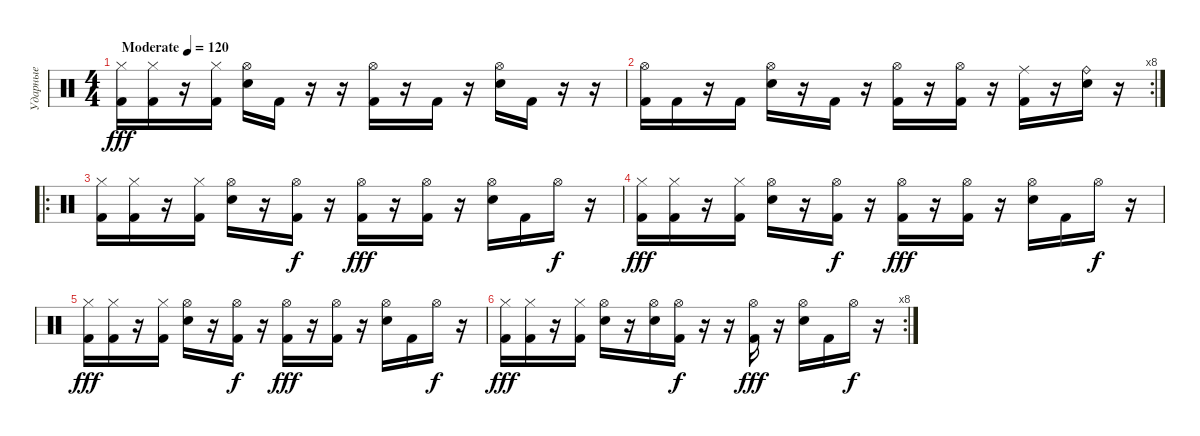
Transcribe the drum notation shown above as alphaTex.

\track ("Ударные" "Ударные") {instrument percussion}
\staff {score}
\articulation defaults
\ts (4 4)
\tempo (120 "Moderate")
\clef neutral
\ks c
("Hi-Hat (closed)" "Kick (hit) 2").16{dy fff} ("Hi-Hat (closed)" "Kick (hit) 2").16 r.16 ("Hi-Hat (closed)" "Kick (hit) 2").16 ("Hi-Hat (open)" "Electric Snare (hit)").16 "Kick (hit) 2".16 r.16 r.16 ("Hi-Hat (open)" "Kick (hit) 2").16 r.16 "Kick (hit) 2".16 r.16 ("Hi-Hat (open)" "Electric Snare (hit)").16 "Kick (hit) 2".16 r.16 r.16 |
\rc 8
("Hi-Hat (open)" "Kick (hit) 2").16 "Kick (hit) 2".16 r.16 "Kick (hit) 2".16 ("Hi-Hat (open)" "Electric Snare (hit)").16 r.16 "Kick (hit) 2".16 r.16 ("Hi-Hat (open)" "Kick (hit) 2").16 r.16 ("Hi-Hat (open)" "Kick (hit) 2").16 r.16 ("Ride (middle)" "Kick (hit) 2").16 r.16 ("Ride (bell)" "Electric Snare (hit)").16 r.16 |
\ro
("Hi-Hat (closed)" "Kick (hit) 2").16 ("Hi-Hat (closed)" "Kick (hit) 2").16 r.16 ("Hi-Hat (closed)" "Kick (hit) 2").16 ("Hi-Hat (open)" "Electric Snare (hit)").16 r.16 ("Hi-Hat (open)" "Kick (hit) 2").16{dy f} r.16 ("Hi-Hat (open)" "Kick (hit) 2").16{dy fff} r.16 ("Hi-Hat (open)" "Kick (hit) 2").16 r.16 ("Hi-Hat (open)" "Electric Snare (hit)").16 "Kick (hit) 2".16 "Hi-Hat (open)".16{dy f} r.16 |
("Hi-Hat (closed)" "Kick (hit) 2").16{dy fff} ("Hi-Hat (closed)" "Kick (hit) 2").16 r.16 ("Hi-Hat (closed)" "Kick (hit) 2").16 ("Hi-Hat (open)" "Electric Snare (hit)").16 r.16 ("Hi-Hat (open)" "Kick (hit) 2").16{dy f} r.16 ("Hi-Hat (open)" "Kick (hit) 2").16{dy fff} r.16 ("Hi-Hat (open)" "Kick (hit) 2").16 r.16 ("Hi-Hat (open)" "Electric Snare (hit)").16 "Kick (hit) 2".16 "Hi-Hat (open)".16{dy f} r.16 |
("Hi-Hat (closed)" "Kick (hit) 2").16{dy fff} ("Hi-Hat (closed)" "Kick (hit) 2").16 r.16 ("Hi-Hat (closed)" "Kick (hit) 2").16 ("Hi-Hat (open)" "Electric Snare (hit)").16 r.16 ("Hi-Hat (open)" "Kick (hit) 2").16{dy f} r.16 ("Hi-Hat (open)" "Kick (hit) 2").16{dy fff} r.16 ("Hi-Hat (open)" "Kick (hit) 2").16 r.16 ("Hi-Hat (open)" "Electric Snare (hit)").16 "Kick (hit) 2".16 "Hi-Hat (open)".16{dy f} r.16 |
\rc 8
("Hi-Hat (closed)" "Kick (hit) 2").16{dy fff} ("Hi-Hat (closed)" "Kick (hit) 2").16 r.16 ("Hi-Hat (closed)" "Kick (hit) 2").16 ("Hi-Hat (open)" "Electric Snare (hit)").16 r.16 ("Hi-Hat (open)" "Electric Snare (hit)").16 ("Hi-Hat (open)" "Kick (hit) 2").16{dy f} r.16 r.16 ("Hi-Hat (open)" "Kick (hit) 2").16{dy fff} r.16 ("Hi-Hat (open)" "Electric Snare (hit)").16 "Kick (hit) 2".16 "Hi-Hat (open)".16{dy f} r.16
